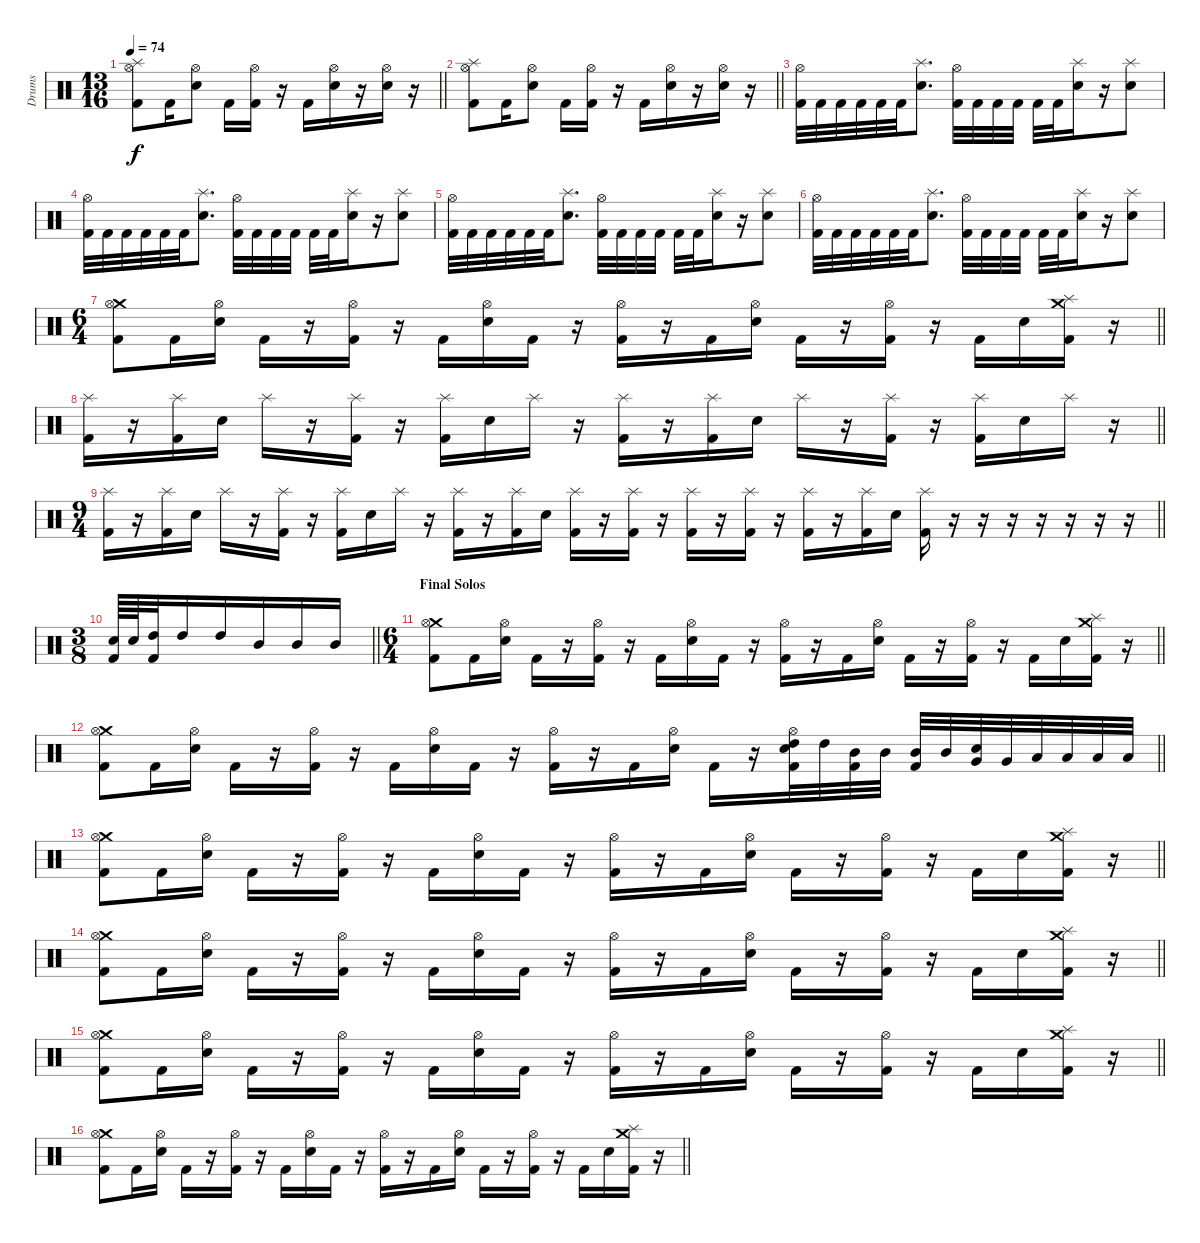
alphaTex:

\track ("Drums" "Drums") {instrument percussion}
\staff {score}
\articulation defaults
\ts (13 16)
\tempo 74
\clef neutral
\barLineRight lightlight
\ks c
("Splash (hit)" "Hi-Hat (open)" "Kick (hit) 2").8{dy f} "Kick (hit) 2".16 ("Hi-Hat (open)" "Electric Snare (hit)").8 "Kick (hit) 2".16 ("Hi-Hat (open)" "Kick (hit) 2").16 r.16 "Kick (hit) 2".16 ("Hi-Hat (open)" "Electric Snare (hit)").16 r.16 ("Hi-Hat (open)" "Electric Snare (hit)").16 r.16 |
\barLineRight lightlight
("Splash (hit)" "Hi-Hat (open)" "Kick (hit) 2").8 "Kick (hit) 2".16 ("Hi-Hat (open)" "Electric Snare (hit)").8 "Kick (hit) 2".16 ("Hi-Hat (open)" "Kick (hit) 2").16 r.16 "Kick (hit) 2".16 ("Hi-Hat (open)" "Electric Snare (hit)").16 r.16 ("Hi-Hat (open)" "Electric Snare (hit)").16 r.16 |
("Hi-Hat (open)" "Kick (hit) 2").32 "Kick (hit) 2".32 "Kick (hit) 2".32 "Kick (hit) 2".32 "Kick (hit) 2".32 "Kick (hit) 2".32 ("Splash (hit)" "Electric Snare (hit)").8{d} ("Hi-Hat (open)" "Kick (hit) 2").32 "Kick (hit) 2".32 "Kick (hit) 2".32 "Kick (hit) 2".32 "Kick (hit) 2".32 "Kick (hit) 2".32 ("Splash (hit)" "Electric Snare (hit)").16 r.16 ("Splash (hit)" "Electric Snare (hit)").8 |
("Hi-Hat (open)" "Kick (hit) 2").32 "Kick (hit) 2".32 "Kick (hit) 2".32 "Kick (hit) 2".32 "Kick (hit) 2".32 "Kick (hit) 2".32 ("Splash (hit)" "Electric Snare (hit)").8{d} ("Hi-Hat (open)" "Kick (hit) 2").32 "Kick (hit) 2".32 "Kick (hit) 2".32 "Kick (hit) 2".32 "Kick (hit) 2".32 "Kick (hit) 2".32 ("Splash (hit)" "Electric Snare (hit)").16 r.16 ("Splash (hit)" "Electric Snare (hit)").8 |
("Hi-Hat (open)" "Kick (hit) 2").32 "Kick (hit) 2".32 "Kick (hit) 2".32 "Kick (hit) 2".32 "Kick (hit) 2".32 "Kick (hit) 2".32 ("Splash (hit)" "Electric Snare (hit)").8{d} ("Hi-Hat (open)" "Kick (hit) 2").32 "Kick (hit) 2".32 "Kick (hit) 2".32 "Kick (hit) 2".32 "Kick (hit) 2".32 "Kick (hit) 2".32 ("Splash (hit)" "Electric Snare (hit)").16 r.16 ("Splash (hit)" "Electric Snare (hit)").8 |
("Hi-Hat (open)" "Kick (hit) 2").32 "Kick (hit) 2".32 "Kick (hit) 2".32 "Kick (hit) 2".32 "Kick (hit) 2".32 "Kick (hit) 2".32 ("Splash (hit)" "Electric Snare (hit)").8{d} ("Hi-Hat (open)" "Kick (hit) 2").32 "Kick (hit) 2".32 "Kick (hit) 2".32 "Kick (hit) 2".32 "Kick (hit) 2".32 "Kick (hit) 2".32 ("Splash (hit)" "Electric Snare (hit)").16 r.16 ("Splash (hit)" "Electric Snare (hit)").8 |
\ts (6 4)
\barLineRight lightlight
("Crash medium (hit)" "Hi-Hat (open)" "Kick (hit) 2").8 "Kick (hit) 2".16 ("Hi-Hat (open)" "Electric Snare (hit)").16 "Kick (hit) 2".16 r.16 ("Hi-Hat (open)" "Kick (hit) 2").16 r.16 "Kick (hit) 2".16 ("Hi-Hat (open)" "Electric Snare (hit)").16 "Kick (hit) 2".16 r.16 ("Hi-Hat (open)" "Kick (hit) 2").16 r.16 "Kick (hit) 2".16 ("Hi-Hat (open)" "Electric Snare (hit)").16 "Kick (hit) 2".16 r.16 ("Hi-Hat (open)" "Kick (hit) 2").16 r.16 "Kick (hit) 2".16 "Electric Snare (hit)".16 ("Crash medium (hit)" "Splash (hit)" "Kick (hit) 2").16 r.16 |
\barLineRight lightlight
("Splash (hit)" "Kick (hit) 2").16 r.16 ("Splash (hit)" "Kick (hit) 2").16 "Electric Snare (hit)".16 "Splash (hit)".16 r.16 ("Splash (hit)" "Kick (hit) 2").16 r.16 ("Splash (hit)" "Kick (hit) 2").16 "Electric Snare (hit)".16 "Splash (hit)".16 r.16 ("Splash (hit)" "Kick (hit) 2").16 r.16 ("Splash (hit)" "Kick (hit) 2").16 "Electric Snare (hit)".16 "Splash (hit)".16 r.16 ("Splash (hit)" "Kick (hit) 2").16 r.16 ("Splash (hit)" "Kick (hit) 2").16 "Electric Snare (hit)".16 "Splash (hit)".16 r.16 |
\ts (9 4)
\barLineRight lightlight
("Splash (hit)" "Kick (hit) 2").16 r.16 ("Splash (hit)" "Kick (hit) 2").16 "Electric Snare (hit)".16 "Splash (hit)".16 r.16 ("Splash (hit)" "Kick (hit) 2").16 r.16 ("Splash (hit)" "Kick (hit) 2").16 "Electric Snare (hit)".16 "Splash (hit)".16 r.16 ("Splash (hit)" "Kick (hit) 2").16 r.16 ("Splash (hit)" "Kick (hit) 2").16 "Electric Snare (hit)".16 ("Splash (hit)" "Kick (hit) 2").16 r.16 ("Splash (hit)" "Kick (hit) 2").16 r.16 ("Splash (hit)" "Kick (hit) 2").16 r.16 ("Splash (hit)" "Kick (hit) 2").16 r.16 ("Splash (hit)" "Kick (hit) 2").16 r.16 ("Splash (hit)" "Kick (hit) 2").16 "Electric Snare (hit)".16 ("Splash (hit)" "Kick (hit) 2").16 r.16 r.16 r.16 r.16 r.16 r.16 r.16 |
\ts (3 8)
\barLineRight lightlight
("Electric Snare (hit)" "Kick (hit) 2").64 "Electric Snare (hit)".64 ("High Tom (hit)" "Kick (hit) 2").32 "High Tom (hit)".16 "High Tom (hit)".16 "Mid Tom (hit)".16 "Mid Tom (hit)".16 "Mid Tom (hit)".16 |
\ts (6 4)
\section ("" "Final Solos")
\barLineRight lightlight
("Crash medium (hit)" "Hi-Hat (open)" "Kick (hit) 2").8 "Kick (hit) 2".16 ("Hi-Hat (open)" "Electric Snare (hit)").16 "Kick (hit) 2".16 r.16 ("Hi-Hat (open)" "Kick (hit) 2").16 r.16 "Kick (hit) 2".16 ("Hi-Hat (open)" "Electric Snare (hit)").16 "Kick (hit) 2".16 r.16 ("Hi-Hat (open)" "Kick (hit) 2").16 r.16 "Kick (hit) 2".16 ("Hi-Hat (open)" "Electric Snare (hit)").16 "Kick (hit) 2".16 r.16 ("Hi-Hat (open)" "Kick (hit) 2").16 r.16 "Kick (hit) 2".16 "Electric Snare (hit)".16 ("Crash medium (hit)" "Splash (hit)" "Kick (hit) 2").16 r.16 |
\barLineRight lightlight
("Crash medium (hit)" "Hi-Hat (open)" "Kick (hit) 2").8 "Kick (hit) 2".16 ("Hi-Hat (open)" "Electric Snare (hit)").16 "Kick (hit) 2".16 r.16 ("Hi-Hat (open)" "Kick (hit) 2").16 r.16 "Kick (hit) 2".16 ("Hi-Hat (open)" "Electric Snare (hit)").16 "Kick (hit) 2".16 r.16 ("Hi-Hat (open)" "Kick (hit) 2").16 r.16 "Kick (hit) 2".16 ("Hi-Hat (open)" "Electric Snare (hit)").16 "Kick (hit) 2".16 r.16 ("Electric Snare (hit)" "Hi-Hat (open)" "High Tom (hit)" "Kick (hit) 2").32 "High Tom (hit)".32 ("Mid Tom (hit)" "Kick (hit) 2").32 "Mid Tom (hit)".32 ("Mid Tom (hit)" "Kick (hit) 2").32 "Mid Tom (hit)".32 ("Very Low Tom (hit)" "Electric Snare (hit)").32 "Very Low Tom (hit)".32 "Low Floor Tom (hit)".32 "Low Floor Tom (hit)".32 "Low Floor Tom (hit)".32 "Low Floor Tom (hit)".32 |
\barLineRight lightlight
("Crash medium (hit)" "Hi-Hat (open)" "Kick (hit) 2").8 "Kick (hit) 2".16 ("Hi-Hat (open)" "Electric Snare (hit)").16 "Kick (hit) 2".16 r.16 ("Hi-Hat (open)" "Kick (hit) 2").16 r.16 "Kick (hit) 2".16 ("Hi-Hat (open)" "Electric Snare (hit)").16 "Kick (hit) 2".16 r.16 ("Hi-Hat (open)" "Kick (hit) 2").16 r.16 "Kick (hit) 2".16 ("Hi-Hat (open)" "Electric Snare (hit)").16 "Kick (hit) 2".16 r.16 ("Hi-Hat (open)" "Kick (hit) 2").16 r.16 "Kick (hit) 2".16 "Electric Snare (hit)".16 ("Crash medium (hit)" "Splash (hit)" "Kick (hit) 2").16 r.16 |
\barLineRight lightlight
("Crash medium (hit)" "Hi-Hat (open)" "Kick (hit) 2").8 "Kick (hit) 2".16 ("Hi-Hat (open)" "Electric Snare (hit)").16 "Kick (hit) 2".16 r.16 ("Hi-Hat (open)" "Kick (hit) 2").16 r.16 "Kick (hit) 2".16 ("Hi-Hat (open)" "Electric Snare (hit)").16 "Kick (hit) 2".16 r.16 ("Hi-Hat (open)" "Kick (hit) 2").16 r.16 "Kick (hit) 2".16 ("Hi-Hat (open)" "Electric Snare (hit)").16 "Kick (hit) 2".16 r.16 ("Hi-Hat (open)" "Kick (hit) 2").16 r.16 "Kick (hit) 2".16 "Electric Snare (hit)".16 ("Crash medium (hit)" "Splash (hit)" "Kick (hit) 2").16 r.16 |
\barLineRight lightlight
("Crash medium (hit)" "Hi-Hat (open)" "Kick (hit) 2").8 "Kick (hit) 2".16 ("Hi-Hat (open)" "Electric Snare (hit)").16 "Kick (hit) 2".16 r.16 ("Hi-Hat (open)" "Kick (hit) 2").16 r.16 "Kick (hit) 2".16 ("Hi-Hat (open)" "Electric Snare (hit)").16 "Kick (hit) 2".16 r.16 ("Hi-Hat (open)" "Kick (hit) 2").16 r.16 "Kick (hit) 2".16 ("Hi-Hat (open)" "Electric Snare (hit)").16 "Kick (hit) 2".16 r.16 ("Hi-Hat (open)" "Kick (hit) 2").16 r.16 "Kick (hit) 2".16 "Electric Snare (hit)".16 ("Crash medium (hit)" "Splash (hit)" "Kick (hit) 2").16 r.16 |
\barLineRight lightlight
("Crash medium (hit)" "Hi-Hat (open)" "Kick (hit) 2").8 "Kick (hit) 2".16 ("Hi-Hat (open)" "Electric Snare (hit)").16 "Kick (hit) 2".16 r.16 ("Hi-Hat (open)" "Kick (hit) 2").16 r.16 "Kick (hit) 2".16 ("Hi-Hat (open)" "Electric Snare (hit)").16 "Kick (hit) 2".16 r.16 ("Hi-Hat (open)" "Kick (hit) 2").16 r.16 "Kick (hit) 2".16 ("Hi-Hat (open)" "Electric Snare (hit)").16 "Kick (hit) 2".16 r.16 ("Hi-Hat (open)" "Kick (hit) 2").16 r.16 "Kick (hit) 2".16 "Electric Snare (hit)".16 ("Crash medium (hit)" "Splash (hit)" "Kick (hit) 2").16 r.16
